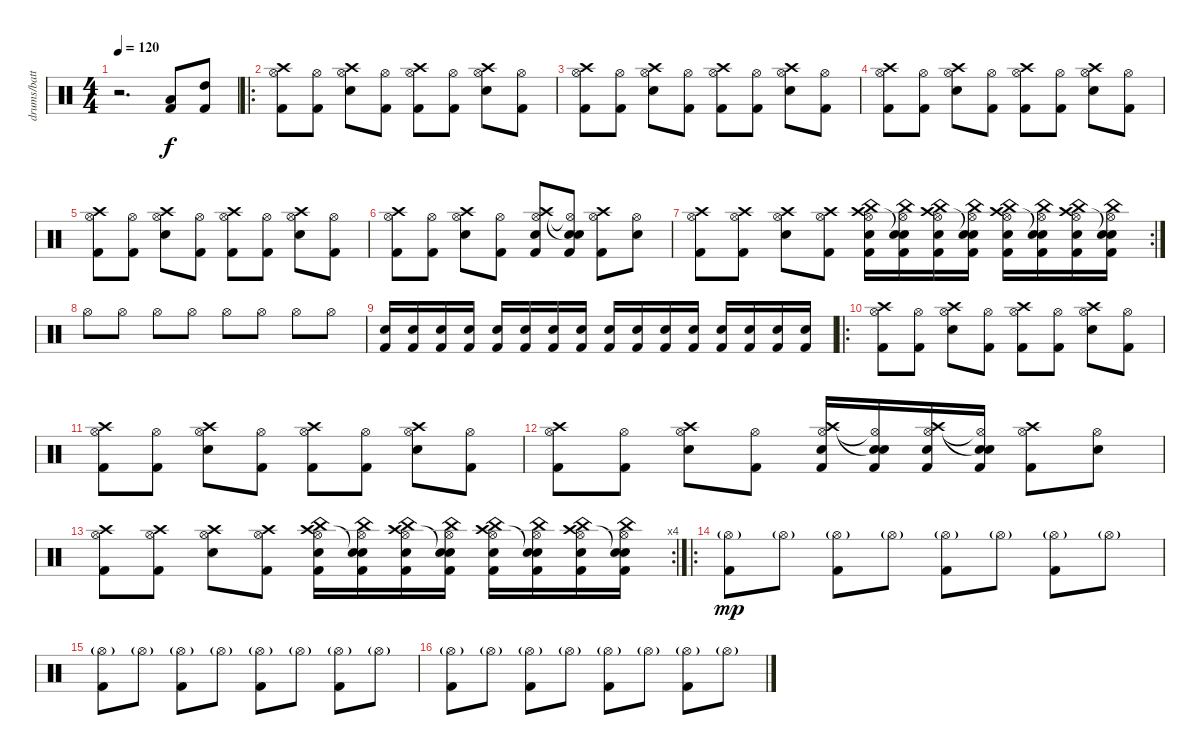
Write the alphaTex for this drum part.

\track ("drums/battery" "drums/batt") {instrument percussion}
\staff {score}
\articulation defaults
\ts (4 4)
\tempo 120
\clef neutral
\ks c
r.2{d dy f} ("Kick (hit) 2" "Low Tom (hit)").8 ("Kick (hit) 2" "High Tom (hit)").8 |
\ro
("Crash high (hit)" "Hi-Hat (open)" "Kick (hit) 2").8 ("Hi-Hat (open)" "Kick (hit) 2").8 ("Crash high (hit)" "Hi-Hat (open)" "Electric Snare (hit)").8 ("Hi-Hat (open)" "Kick (hit) 2").8 ("Crash high (hit)" "Hi-Hat (open)" "Kick (hit) 2").8 ("Hi-Hat (open)" "Kick (hit) 2").8 ("Crash high (hit)" "Hi-Hat (open)" "Electric Snare (hit)").8 ("Hi-Hat (open)" "Kick (hit) 2").8 |
("Crash high (hit)" "Hi-Hat (open)" "Kick (hit) 2").8 ("Hi-Hat (open)" "Kick (hit) 2").8 ("Crash high (hit)" "Hi-Hat (open)" "Electric Snare (hit)").8 ("Hi-Hat (open)" "Kick (hit) 2").8 ("Crash high (hit)" "Hi-Hat (open)" "Kick (hit) 2").8 ("Hi-Hat (open)" "Kick (hit) 2").8 ("Crash high (hit)" "Hi-Hat (open)" "Electric Snare (hit)").8 ("Hi-Hat (open)" "Kick (hit) 2").8 |
("Crash high (hit)" "Hi-Hat (open)" "Kick (hit) 2").8 ("Hi-Hat (open)" "Kick (hit) 2").8 ("Crash high (hit)" "Hi-Hat (open)" "Electric Snare (hit)").8 ("Hi-Hat (open)" "Kick (hit) 2").8 ("Crash high (hit)" "Hi-Hat (open)" "Kick (hit) 2").8 ("Hi-Hat (open)" "Kick (hit) 2").8 ("Crash high (hit)" "Hi-Hat (open)" "Electric Snare (hit)").8 ("Hi-Hat (open)" "Kick (hit) 2").8 |
("Crash high (hit)" "Hi-Hat (open)" "Kick (hit) 2").8 ("Hi-Hat (open)" "Kick (hit) 2").8 ("Crash high (hit)" "Hi-Hat (open)" "Electric Snare (hit)").8 ("Hi-Hat (open)" "Kick (hit) 2").8 ("Crash high (hit)" "Hi-Hat (open)" "Kick (hit) 2").8 ("Hi-Hat (open)" "Kick (hit) 2").8 ("Crash high (hit)" "Hi-Hat (open)" "Electric Snare (hit)").8 ("Hi-Hat (open)" "Kick (hit) 2").8 |
("Crash high (hit)" "Hi-Hat (open)" "Kick (hit) 2").8 ("Hi-Hat (open)" "Kick (hit) 2").8 ("Crash high (hit)" "Hi-Hat (open)" "Electric Snare (hit)").8 ("Hi-Hat (open)" "Kick (hit) 2").8 ("Crash high (hit)" "Electric Snare (hit)" "Hi-Hat (open)" "Kick (hit) 2").8 ("Snare (hit)"{t} "Electric Snare (hit)" "Hi-Hat (open)"{t} "Kick (hit) 2").8 ("Crash high (hit)" "Hi-Hat (open)" "Kick (hit) 2").8 ("Hi-Hat (open)" "Electric Snare (hit)").8 |
\rc 2
("Crash high (hit)" "Hi-Hat (open)" "Kick (hit) 2").8 ("Crash high (hit)" "Hi-Hat (open)" "Kick (hit) 2").8 ("Crash high (hit)" "Hi-Hat (open)" "Electric Snare (hit)").8 ("Crash high (hit)" "Hi-Hat (open)" "Kick (hit) 2").8 ("China (hit)" "Crash high (hit)" "Kick (hit) 2" "Hi-Hat (open)" "Electric Snare (hit)").16 ("China (hit)" "Snare (hit)"{t} "Kick (hit) 2" "Hi-Hat (open)" "Electric Snare (hit)").16 ("China (hit)" "Crash high (hit)" "Kick (hit) 2" "Hi-Hat (open)" "Electric Snare (hit)").16 ("China (hit)" "Snare (hit)"{t} "Kick (hit) 2" "Hi-Hat (open)" "Electric Snare (hit)").16 ("China (hit)" "Crash high (hit)" "Kick (hit) 2" "Hi-Hat (open)" "Electric Snare (hit)").16 ("China (hit)" "Snare (hit)"{t} "Kick (hit) 2" "Hi-Hat (open)" "Electric Snare (hit)").16 ("China (hit)" "Crash high (hit)" "Kick (hit) 2" "Hi-Hat (open)" "Electric Snare (hit)").16 ("China (hit)" "Snare (hit)"{t} "Kick (hit) 2" "Hi-Hat (open)" "Electric Snare (hit)").16 |
"Hi-Hat (open)".8 "Hi-Hat (open)".8 "Hi-Hat (open)".8 "Hi-Hat (open)".8 "Hi-Hat (open)".8 "Hi-Hat (open)".8 "Hi-Hat (open)".8 "Hi-Hat (open)".8 |
("Kick (hit) 2" "Electric Snare (hit)").16 ("Kick (hit) 2" "Electric Snare (hit)").16 ("Kick (hit) 2" "Electric Snare (hit)").16 ("Kick (hit) 2" "Electric Snare (hit)").16 ("Kick (hit) 2" "Electric Snare (hit)").16 ("Kick (hit) 2" "Electric Snare (hit)").16 ("Kick (hit) 2" "Electric Snare (hit)").16 ("Kick (hit) 2" "Electric Snare (hit)").16 ("Kick (hit) 2" "Electric Snare (hit)").16 ("Kick (hit) 2" "Electric Snare (hit)").16 ("Kick (hit) 2" "Electric Snare (hit)").16 ("Kick (hit) 2" "Electric Snare (hit)").16 ("Kick (hit) 2" "Electric Snare (hit)").16 ("Kick (hit) 2" "Electric Snare (hit)").16 ("Kick (hit) 2" "Electric Snare (hit)").16 ("Kick (hit) 2" "Electric Snare (hit)").16 |
\ro
("Crash high (hit)" "Hi-Hat (open)" "Kick (hit) 2").8 ("Hi-Hat (open)" "Kick (hit) 2").8 ("Crash high (hit)" "Hi-Hat (open)" "Electric Snare (hit)").8 ("Hi-Hat (open)" "Kick (hit) 2").8 ("Crash high (hit)" "Hi-Hat (open)" "Kick (hit) 2").8 ("Hi-Hat (open)" "Kick (hit) 2").8 ("Crash high (hit)" "Hi-Hat (open)" "Electric Snare (hit)").8 ("Hi-Hat (open)" "Kick (hit) 2").8 |
("Crash high (hit)" "Hi-Hat (open)" "Kick (hit) 2").8 ("Hi-Hat (open)" "Kick (hit) 2").8 ("Crash high (hit)" "Hi-Hat (open)" "Electric Snare (hit)").8 ("Hi-Hat (open)" "Kick (hit) 2").8 ("Crash high (hit)" "Hi-Hat (open)" "Kick (hit) 2").8 ("Hi-Hat (open)" "Kick (hit) 2").8 ("Crash high (hit)" "Hi-Hat (open)" "Electric Snare (hit)").8 ("Hi-Hat (open)" "Kick (hit) 2").8 |
("Crash high (hit)" "Hi-Hat (open)" "Kick (hit) 2").8 ("Hi-Hat (open)" "Kick (hit) 2").8 ("Crash high (hit)" "Hi-Hat (open)" "Electric Snare (hit)").8 ("Hi-Hat (open)" "Kick (hit) 2").8 ("Crash high (hit)" "Electric Snare (hit)" "Hi-Hat (open)" "Kick (hit) 2").16 ("Snare (hit)"{t} "Electric Snare (hit)" "Hi-Hat (open)"{t} "Kick (hit) 2").16 ("Crash high (hit)" "Electric Snare (hit)" "Hi-Hat (open)" "Kick (hit) 2").16 ("Snare (hit)"{t} "Electric Snare (hit)" "Hi-Hat (open)"{t} "Kick (hit) 2").16 ("Crash high (hit)" "Hi-Hat (open)" "Kick (hit) 2").8 ("Hi-Hat (open)" "Electric Snare (hit)").8 |
\rc 4
("Crash high (hit)" "Hi-Hat (open)" "Kick (hit) 2").8 ("Crash high (hit)" "Hi-Hat (open)" "Kick (hit) 2").8 ("Crash high (hit)" "Hi-Hat (open)" "Electric Snare (hit)").8 ("Crash high (hit)" "Hi-Hat (open)" "Kick (hit) 2").8 ("China (hit)" "Crash high (hit)" "Kick (hit) 2" "Hi-Hat (open)" "Electric Snare (hit)").16 ("China (hit)" "Snare (hit)"{t} "Kick (hit) 2" "Hi-Hat (open)" "Electric Snare (hit)").16 ("China (hit)" "Crash high (hit)" "Kick (hit) 2" "Hi-Hat (open)" "Electric Snare (hit)").16 ("China (hit)" "Snare (hit)"{t} "Kick (hit) 2" "Hi-Hat (open)" "Electric Snare (hit)").16 ("China (hit)" "Crash high (hit)" "Kick (hit) 2" "Hi-Hat (open)" "Electric Snare (hit)").16 ("China (hit)" "Snare (hit)"{t} "Kick (hit) 2" "Hi-Hat (open)" "Electric Snare (hit)").16 ("China (hit)" "Crash high (hit)" "Kick (hit) 2" "Hi-Hat (open)" "Electric Snare (hit)").16 ("China (hit)" "Snare (hit)"{t} "Kick (hit) 2" "Hi-Hat (open)" "Electric Snare (hit)").16 |
\ro
("Kick (hit) 2" "Hi-Hat (open)"{g}).8{dy mp} "Hi-Hat (open)"{g}.8 ("Kick (hit) 2" "Hi-Hat (open)"{g}).8 "Hi-Hat (open)"{g}.8 ("Kick (hit) 2" "Hi-Hat (open)"{g}).8 "Hi-Hat (open)"{g}.8 ("Kick (hit) 2" "Hi-Hat (open)"{g}).8 "Hi-Hat (open)"{g}.8 |
("Kick (hit) 2" "Hi-Hat (open)"{g}).8 "Hi-Hat (open)"{g}.8 ("Kick (hit) 2" "Hi-Hat (open)"{g}).8 "Hi-Hat (open)"{g}.8 ("Kick (hit) 2" "Hi-Hat (open)"{g}).8 "Hi-Hat (open)"{g}.8 ("Kick (hit) 2" "Hi-Hat (open)"{g}).8 "Hi-Hat (open)"{g}.8 |
("Kick (hit) 2" "Hi-Hat (open)"{g}).8 "Hi-Hat (open)"{g}.8 ("Kick (hit) 2" "Hi-Hat (open)"{g}).8 "Hi-Hat (open)"{g}.8 ("Kick (hit) 2" "Hi-Hat (open)"{g}).8 "Hi-Hat (open)"{g}.8 ("Kick (hit) 2" "Hi-Hat (open)"{g}).8 "Hi-Hat (open)"{g}.8
